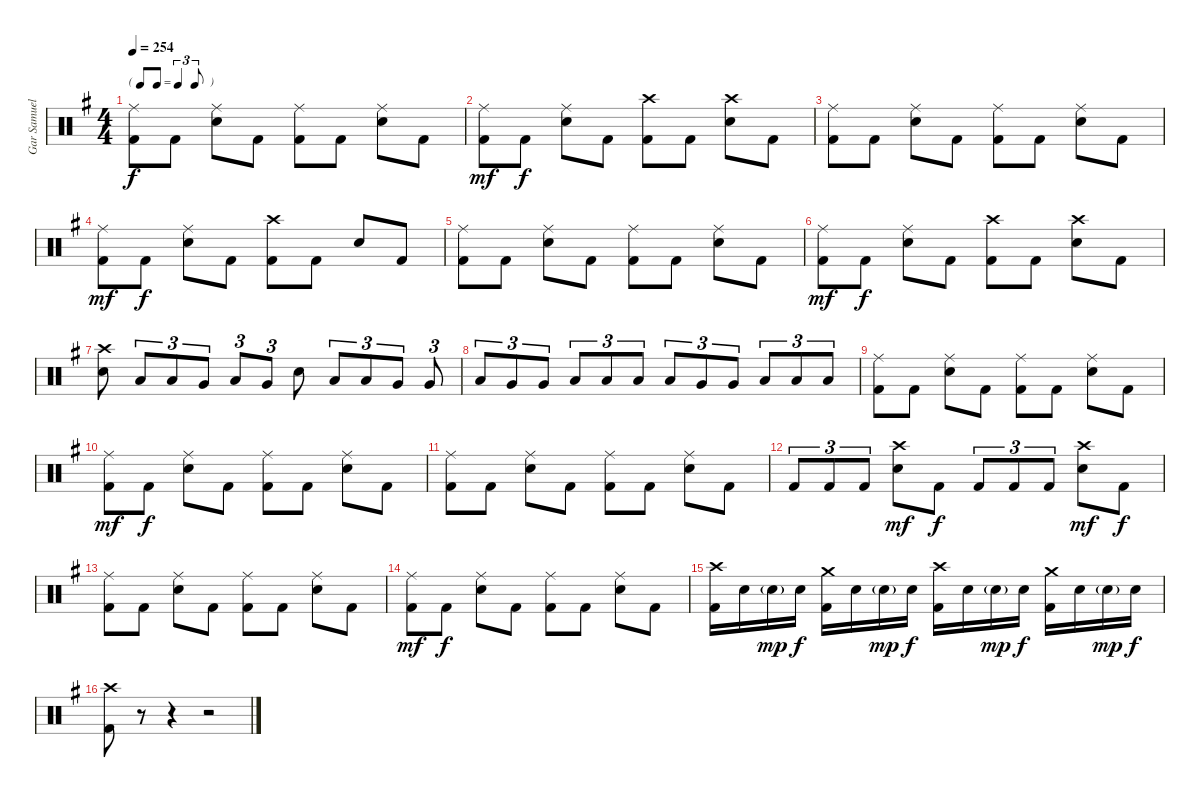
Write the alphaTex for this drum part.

\track ("Gar Samuelson" "Gar Samuel") {instrument percussion}
\staff {score}
\articulation defaults
\ts (4 4)
\tf triplet8th
\tempo 254
\clef neutral
\ks g
("Ride (middle)" "Kick (hit) 2").8{dy f} "Kick (hit) 2".8 ("Ride (middle)" "Snare (hit) 2").8 "Kick (hit) 2".8 ("Ride (middle)" "Kick (hit) 2").8 "Kick (hit) 2".8 ("Ride (middle)" "Snare (hit) 2").8 "Kick (hit) 2".8 |
("Ride (middle)" "Kick (hit) 2").8{dy mf} "Kick (hit) 2".8{dy f} ("Ride (middle)" "Snare (hit) 2").8 "Kick (hit) 2".8 ("Crash high (hit)" "Kick (hit) 2").8 "Kick (hit) 2".8 ("Crash high (hit)" "Snare (hit) 2").8 "Kick (hit) 2".8 |
("Ride (middle)" "Kick (hit) 2").8 "Kick (hit) 2".8 ("Ride (middle)" "Snare (hit) 2").8 "Kick (hit) 2".8 ("Ride (middle)" "Kick (hit) 2").8 "Kick (hit) 2".8 ("Ride (middle)" "Snare (hit) 2").8 "Kick (hit) 2".8 |
("Ride (middle)" "Kick (hit) 2").8{dy mf} "Kick (hit) 2".8{dy f} ("Ride (middle)" "Snare (hit) 2").8 "Kick (hit) 2".8 ("Crash high (hit)" "Kick (hit) 2").8 "Kick (hit) 2".8 "Snare (hit) 2".8 "Kick (hit) 2".8 |
("Ride (middle)" "Kick (hit) 2").8 "Kick (hit) 2".8 ("Ride (middle)" "Snare (hit) 2").8 "Kick (hit) 2".8 ("Ride (middle)" "Kick (hit) 2").8 "Kick (hit) 2".8 ("Ride (middle)" "Snare (hit) 2").8 "Kick (hit) 2".8 |
("Ride (middle)" "Kick (hit) 2").8{dy mf} "Kick (hit) 2".8{dy f} ("Ride (middle)" "Snare (hit) 2").8 "Kick (hit) 2".8 ("Crash high (hit)" "Kick (hit) 2").8 "Kick (hit) 2".8 ("Crash high (hit)" "Snare (hit) 2").8 "Kick (hit) 2".8 |
("Crash high (hit)" "Snare (hit) 2").8 "Low Tom (hit)".8{tu (3 2)} "Low Tom (hit)".8{tu (3 2)} "Very Low Tom (hit)".8{tu (3 2)} "Low Tom (hit)".8{tu (3 2)} "Very Low Tom (hit)".8{tu (3 2)} "Snare (hit) 2".8 "Low Tom (hit)".8{tu (3 2)} "Low Tom (hit)".8{tu (3 2)} "Very Low Tom (hit)".8{tu (3 2)} "Very Low Tom (hit)".8{tu (3 2)} |
"Low Tom (hit)".8{tu (3 2)} "Very Low Tom (hit)".8{tu (3 2)} "Very Low Tom (hit)".8{tu (3 2)} "Low Floor Tom (hit)".8{tu (3 2)} "Low Floor Tom (hit)".8{tu (3 2)} "Low Tom (hit)".8{tu (3 2)} "Low Tom (hit)".8{tu (3 2)} "Very Low Tom (hit)".8{tu (3 2)} "Very Low Tom (hit)".8{tu (3 2)} "Low Floor Tom (hit)".8{tu (3 2)} "Low Floor Tom (hit)".8{tu (3 2)} "Low Floor Tom (hit)".8{tu (3 2)} |
("Ride (middle)" "Kick (hit) 2").8 "Kick (hit) 2".8 ("Ride (middle)" "Snare (hit) 2").8 "Kick (hit) 2".8 ("Ride (middle)" "Kick (hit) 2").8 "Kick (hit) 2".8 ("Ride (middle)" "Snare (hit) 2").8 "Kick (hit) 2".8 |
("Ride (middle)" "Kick (hit) 2").8{dy mf} "Kick (hit) 2".8{dy f} ("Ride (middle)" "Snare (hit) 2").8 "Kick (hit) 2".8 ("Ride (middle)" "Kick (hit) 2").8 "Kick (hit) 2".8 ("Ride (middle)" "Snare (hit) 2").8 "Kick (hit) 2".8 |
("Ride (middle)" "Kick (hit) 2").8 "Kick (hit) 2".8 ("Ride (middle)" "Snare (hit) 2").8 "Kick (hit) 2".8 ("Ride (middle)" "Kick (hit) 2").8 "Kick (hit) 2".8 ("Ride (middle)" "Snare (hit) 2").8 "Kick (hit) 2".8 |
"Kick (hit) 2".8{tu (3 2)} "Kick (hit) 2".8{tu (3 2)} "Kick (hit) 2".8{tu (3 2)} ("Crash high (hit)" "Snare (hit) 2").8{dy mf} "Kick (hit) 2".8{dy f} "Kick (hit) 2".8{tu (3 2)} "Kick (hit) 2".8{tu (3 2)} "Kick (hit) 2".8{tu (3 2)} ("Crash high (hit)" "Snare (hit) 2").8{dy mf} "Kick (hit) 2".8{dy f} |
("Ride (middle)" "Kick (hit) 2").8 "Kick (hit) 2".8 ("Ride (middle)" "Snare (hit) 2").8 "Kick (hit) 2".8 ("Ride (middle)" "Kick (hit) 2").8 "Kick (hit) 2".8 ("Ride (middle)" "Snare (hit) 2").8 "Kick (hit) 2".8 |
("Ride (middle)" "Kick (hit) 2").8{dy mf} "Kick (hit) 2".8{dy f} ("Ride (middle)" "Snare (hit) 2").8 "Kick (hit) 2".8 ("Ride (middle)" "Kick (hit) 2").8 "Kick (hit) 2".8 ("Ride (middle)" "Snare (hit) 2").8 "Kick (hit) 2".8 |
("Crash high (hit)" "Kick (hit) 2").16 "Snare (hit) 2".16 "Snare (hit) 2"{g}.16{dy mp} "Snare (hit) 2".16{dy f} ("Crash medium (hit)" "Kick (hit) 2").16 "Snare (hit) 2".16 "Snare (hit) 2"{g}.16{dy mp} "Snare (hit) 2".16{dy f} ("Crash high (hit)" "Kick (hit) 2").16 "Snare (hit) 2".16 "Snare (hit) 2"{g}.16{dy mp} "Snare (hit) 2".16{dy f} ("Crash medium (hit)" "Kick (hit) 2").16 "Snare (hit) 2".16 "Snare (hit) 2"{g}.16{dy mp} "Snare (hit) 2".16{dy f} |
("Crash high (hit)" "Kick (hit) 2").8 r.8 r.4 r.2
